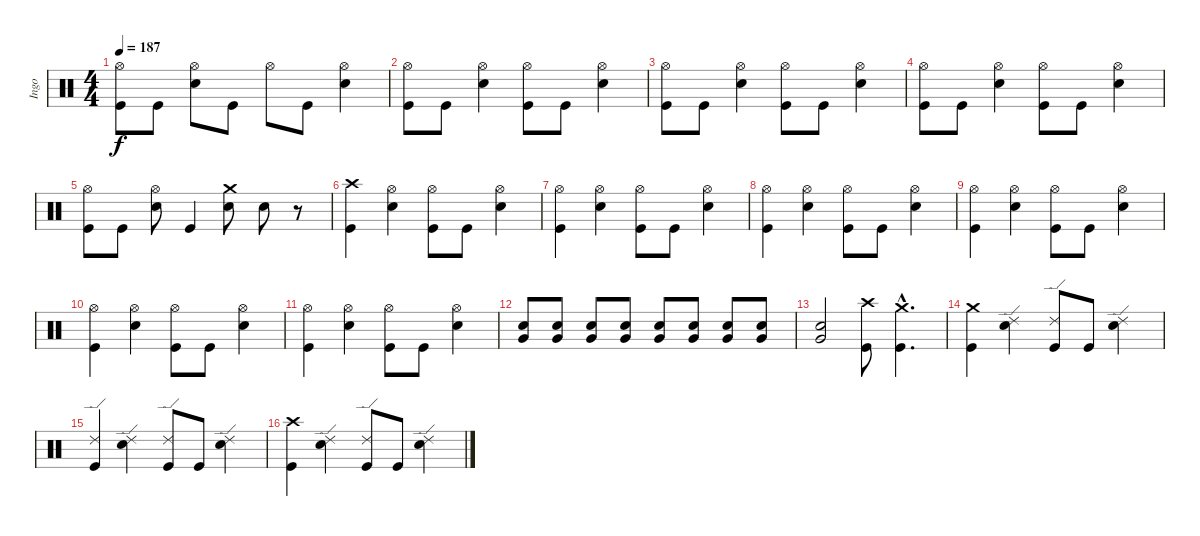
\track ("Ingo" "Ingo") {instrument percussion}
\staff {score}
\articulation defaults
\ts (4 4)
\tempo 187
\clef neutral
\ks c
("Hi-Hat (open)" "Kick (hit)").8{dy f} "Kick (hit)".8 ("Hi-Hat (open)" "Snare (hit) 2").8 "Kick (hit)".8 "Hi-Hat (open)".8 "Kick (hit)".8 ("Hi-Hat (open)" "Snare (hit) 2").4 |
("Hi-Hat (open)" "Kick (hit)").8 "Kick (hit)".8 ("Hi-Hat (open)" "Snare (hit) 2").4 ("Hi-Hat (open)" "Kick (hit)").8 "Kick (hit)".8 ("Hi-Hat (open)" "Snare (hit) 2").4 |
("Hi-Hat (open)" "Kick (hit)").8 "Kick (hit)".8 ("Hi-Hat (open)" "Snare (hit) 2").4 ("Hi-Hat (open)" "Kick (hit)").8 "Kick (hit)".8 ("Hi-Hat (open)" "Snare (hit) 2").4 |
("Hi-Hat (open)" "Kick (hit)").8 "Kick (hit)".8 ("Hi-Hat (open)" "Snare (hit) 2").4 ("Hi-Hat (open)" "Kick (hit)").8 "Kick (hit)".8 ("Hi-Hat (open)" "Snare (hit) 2").4 |
("Hi-Hat (open)" "Kick (hit)").8 "Kick (hit)".8 ("Hi-Hat (open)" "Snare (hit) 2").8 "Kick (hit)".4 ("Crash medium (hit)" "Snare (hit) 2").8 "Snare (hit) 2".8 r.8 |
("Crash high (hit)" "Kick (hit)").4 ("Hi-Hat (open)" "Snare (hit) 2").4 ("Hi-Hat (open)" "Kick (hit)").8 "Kick (hit)".8 ("Hi-Hat (open)" "Snare (hit) 2").4 |
("Hi-Hat (open)" "Kick (hit)").4 ("Hi-Hat (open)" "Snare (hit) 2").4 ("Hi-Hat (open)" "Kick (hit)").8 "Kick (hit)".8 ("Hi-Hat (open)" "Snare (hit) 2").4 |
("Hi-Hat (open)" "Kick (hit)").4 ("Hi-Hat (open)" "Snare (hit) 2").4 ("Hi-Hat (open)" "Kick (hit)").8 "Kick (hit)".8 ("Hi-Hat (open)" "Snare (hit) 2").4 |
("Hi-Hat (open)" "Kick (hit)").4 ("Hi-Hat (open)" "Snare (hit) 2").4 ("Hi-Hat (open)" "Kick (hit)").8 "Kick (hit)".8 ("Hi-Hat (open)" "Snare (hit) 2").4 |
("Hi-Hat (open)" "Kick (hit)").4 ("Hi-Hat (open)" "Snare (hit) 2").4 ("Hi-Hat (open)" "Kick (hit)").8 "Kick (hit)".8 ("Hi-Hat (open)" "Snare (hit) 2").4 |
("Hi-Hat (open)" "Kick (hit)").4 ("Hi-Hat (open)" "Snare (hit) 2").4 ("Hi-Hat (open)" "Kick (hit)").8 "Kick (hit)".8 ("Hi-Hat (open)" "Snare (hit) 2").4 |
("Snare (hit) 2" "Very Low Tom (hit)").8{volume 8} ("Snare (hit) 2" "Very Low Tom (hit)").8{volume 13} ("Snare (hit) 2" "Very Low Tom (hit)").8 ("Snare (hit) 2" "Very Low Tom (hit)").8 ("Snare (hit) 2" "Very Low Tom (hit)").8 ("Snare (hit) 2" "Very Low Tom (hit)").8 ("Snare (hit) 2" "Very Low Tom (hit)").8 ("Snare (hit) 2" "Very Low Tom (hit)").8 |
("Snare (hit) 2" "Very Low Tom (hit)").2 ("Crash high (hit)" "Kick (hit)").8 ("Crash medium (hit)"{hac} "Kick (hit)"{hac}).4{d} |
("Crash medium (hit)" "Kick (hit)").4 ("Ride (edge) 2" "Snare (hit) 2").4 ("Ride (edge) 2" "Kick (hit)").8 "Kick (hit)".8 ("Ride (edge) 2" "Snare (hit) 2").4 |
("Ride (edge) 2" "Kick (hit)").4 ("Ride (edge) 2" "Snare (hit) 2").4 ("Ride (edge) 2" "Kick (hit)").8 "Kick (hit)".8 ("Ride (edge) 2" "Snare (hit) 2").4 |
("Crash high (hit)" "Kick (hit)").4 ("Ride (edge) 2" "Snare (hit) 2").4 ("Ride (edge) 2" "Kick (hit)").8 "Kick (hit)".8 ("Ride (edge) 2" "Snare (hit) 2").4
